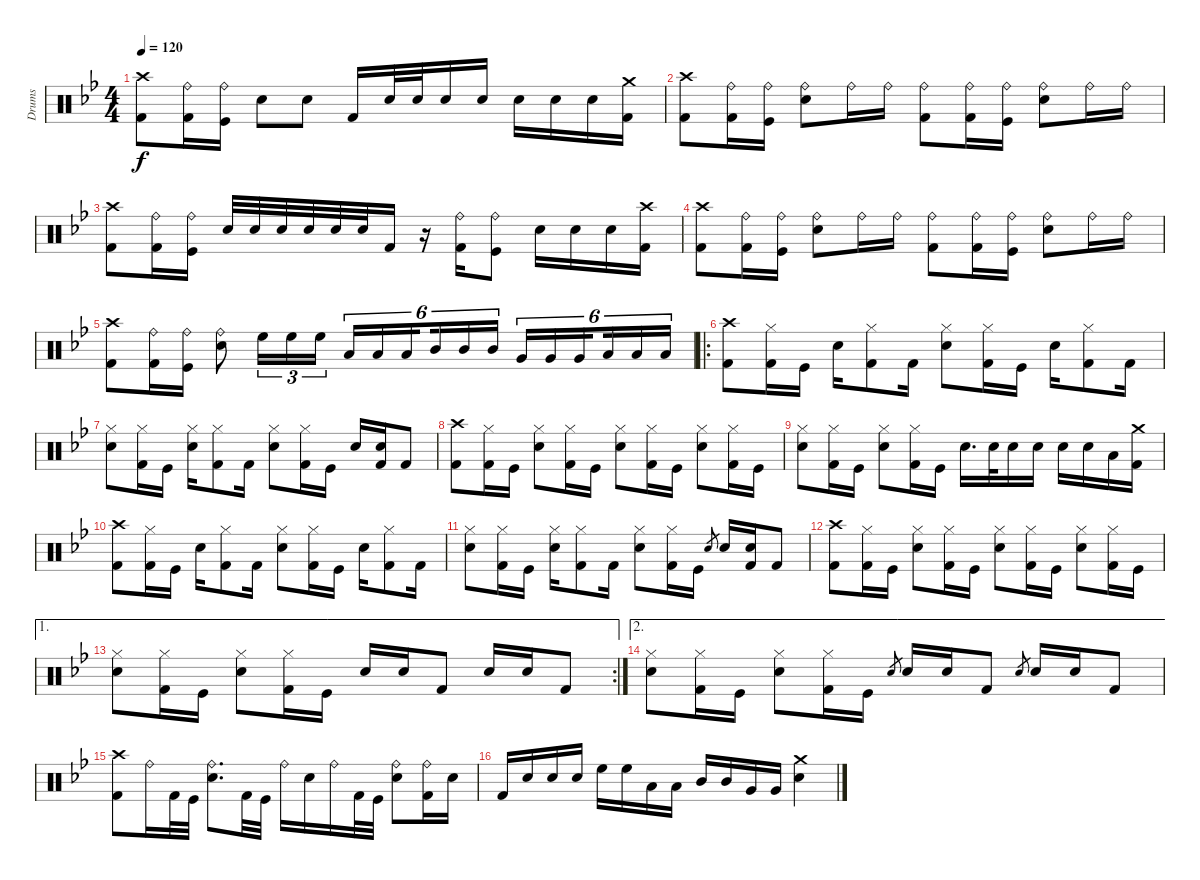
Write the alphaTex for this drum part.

\track ("Drums" "Drums") {instrument percussion}
\staff {score}
\articulation defaults
\ts (4 4)
\tempo 120
\clef neutral
\ks bb
("Crash high (hit)" "Kick (hit) 2").8{dy f} ("Ride (bell)" "Kick (hit) 2").16 ("Ride (bell)" "Kick (hit)").16 "Electric Snare (hit)".8 "Electric Snare (hit)".8 "Kick (hit) 2".16 "Electric Snare (hit)".32 "Electric Snare (hit)".32 "Electric Snare (hit)".16 "Electric Snare (hit)".16 "Electric Snare (hit)".16 "Electric Snare (hit)".16 "Electric Snare (hit)".16 ("Crash medium (hit)" "Kick (hit) 2").16 |
("Crash high (hit)" "Kick (hit) 2").8 ("Ride (bell)" "Kick (hit) 2").16 ("Ride (bell)" "Kick (hit)").16 ("Ride (bell)" "Electric Snare (hit)").8 "Ride (bell)".16 "Ride (bell)".16 ("Ride (bell)" "Kick (hit) 2").8 ("Ride (bell)" "Kick (hit) 2").16 ("Ride (bell)" "Kick (hit)").16 ("Ride (bell)" "Electric Snare (hit)").8 "Ride (bell)".16 "Ride (bell)".16 |
("Crash high (hit)" "Kick (hit) 2").8 ("Ride (bell)" "Kick (hit) 2").16 ("Ride (bell)" "Kick (hit)").16 "Electric Snare (hit)".32 "Electric Snare (hit)".32 "Electric Snare (hit)".32 "Electric Snare (hit)".32 "Electric Snare (hit)".32 "Electric Snare (hit)".32 "Kick (hit) 2".16 r.16 ("Ride (bell)" "Kick (hit) 2").16 ("Ride (bell)" "Kick (hit)").8 "Electric Snare (hit)".16 "Electric Snare (hit)".16 "Electric Snare (hit)".16 ("Crash high (hit)" "Kick (hit) 2").16 |
("Crash high (hit)" "Kick (hit) 2").8 ("Ride (bell)" "Kick (hit) 2").16 ("Ride (bell)" "Kick (hit)").16 ("Ride (bell)" "Electric Snare (hit)").8 "Ride (bell)".16 "Ride (bell)".16 ("Ride (bell)" "Kick (hit) 2").8 ("Ride (bell)" "Kick (hit) 2").16 ("Ride (bell)" "Kick (hit)").16 ("Ride (bell)" "Electric Snare (hit)").8 "Ride (bell)".16 "Ride (bell)".16 |
("Crash high (hit)" "Kick (hit) 2").8 ("Ride (bell)" "Kick (hit) 2").16 ("Ride (bell)" "Kick (hit)").16 ("Ride (bell)" "Electric Snare (hit)").8 "High Floor Tom (hit)".16{tu (3 2)} "High Floor Tom (hit)".16{tu (3 2)} "High Floor Tom (hit)".16{tu (3 2)} "Low Tom (hit)".16{tu (6 4)} "Low Tom (hit)".16{tu (6 4)} "Low Tom (hit)".16{tu (6 4) beam splitsecondary} "Mid Tom (hit)".16{tu (6 4)} "Mid Tom (hit)".16{tu (6 4)} "Mid Tom (hit)".16{tu (6 4)} "Very Low Tom (hit)".16{tu (6 4)} "Very Low Tom (hit)".16{tu (6 4)} "Very Low Tom (hit)".16{tu (6 4) beam splitsecondary} "Low Floor Tom (hit)".16{tu (6 4)} "Low Floor Tom (hit)".16{tu (6 4)} "Low Floor Tom (hit)".16{tu (6 4)} |
\ro
("Crash high (hit)" "Kick (hit) 2").8 ("Hi-Hat (closed)" "Kick (hit) 2").16 "Kick (hit)".16 "Electric Snare (hit)".16 ("Hi-Hat (closed)" "Kick (hit) 2").8 "Kick (hit) 2".16 ("Hi-Hat (closed)" "Electric Snare (hit)").8 ("Hi-Hat (closed)" "Kick (hit) 2").16 "Kick (hit)".16 "Electric Snare (hit)".16 ("Hi-Hat (closed)" "Kick (hit) 2").8 "Kick (hit) 2".16 |
("Hi-Hat (closed)" "Electric Snare (hit)").8 ("Hi-Hat (closed)" "Kick (hit) 2").16 "Kick (hit)".16 ("Hi-Hat (closed)" "Electric Snare (hit)").16 ("Hi-Hat (closed)" "Kick (hit) 2").8 "Kick (hit) 2".16 ("Hi-Hat (closed)" "Electric Snare (hit)").8 ("Hi-Hat (closed)" "Kick (hit) 2").16 "Kick (hit)".16 "Electric Snare (hit)".16 ("Electric Snare (hit)" "Kick (hit) 2").16 "Kick (hit) 2".8 |
("Crash high (hit)" "Kick (hit) 2").8 ("Hi-Hat (closed)" "Kick (hit) 2").16 "Kick (hit)".16 ("Hi-Hat (closed)" "Electric Snare (hit)").8 ("Hi-Hat (closed)" "Kick (hit) 2").16 "Kick (hit)".16 ("Hi-Hat (closed)" "Electric Snare (hit)").8 ("Hi-Hat (closed)" "Kick (hit) 2").16 "Kick (hit)".16 ("Hi-Hat (closed)" "Electric Snare (hit)").8 ("Hi-Hat (closed)" "Kick (hit) 2").16 "Kick (hit)".16 |
("Hi-Hat (closed)" "Electric Snare (hit)").8 ("Hi-Hat (closed)" "Kick (hit) 2").16 "Kick (hit)".16 ("Hi-Hat (closed)" "Electric Snare (hit)").8 ("Hi-Hat (closed)" "Kick (hit) 2").16 "Kick (hit)".16 "Electric Snare (hit)".16{d} "Electric Snare (hit)".32 "Electric Snare (hit)".16 "Electric Snare (hit)".16 "Electric Snare (hit)".16 "Electric Snare (hit)".16 "Low Tom (hit)".16 ("Crash medium (hit)" "Kick (hit) 2").16 |
("Crash high (hit)" "Kick (hit) 2").8 ("Hi-Hat (closed)" "Kick (hit) 2").16 "Kick (hit)".16 "Electric Snare (hit)".16 ("Hi-Hat (closed)" "Kick (hit) 2").8 "Kick (hit) 2".16 ("Hi-Hat (closed)" "Electric Snare (hit)").8 ("Hi-Hat (closed)" "Kick (hit) 2").16 "Kick (hit)".16 "Electric Snare (hit)".16 ("Hi-Hat (closed)" "Kick (hit) 2").8 "Kick (hit) 2".16 |
("Hi-Hat (closed)" "Electric Snare (hit)").8 ("Hi-Hat (closed)" "Kick (hit) 2").16 "Kick (hit)".16 ("Hi-Hat (closed)" "Electric Snare (hit)").16 ("Hi-Hat (closed)" "Kick (hit) 2").8 "Kick (hit) 2".16 ("Hi-Hat (closed)" "Electric Snare (hit)").8 ("Hi-Hat (closed)" "Kick (hit) 2").16 "Kick (hit)".16 "Electric Snare (hit)".8{gr} "Electric Snare (hit)".16 ("Electric Snare (hit)" "Kick (hit) 2").16 "Kick (hit) 2".8 |
("Crash high (hit)" "Kick (hit) 2").8 ("Hi-Hat (closed)" "Kick (hit) 2").16 "Kick (hit)".16 ("Hi-Hat (closed)" "Electric Snare (hit)").8 ("Hi-Hat (closed)" "Kick (hit) 2").16 "Kick (hit)".16 ("Hi-Hat (closed)" "Electric Snare (hit)").8 ("Hi-Hat (closed)" "Kick (hit) 2").16 "Kick (hit)".16 ("Hi-Hat (closed)" "Electric Snare (hit)").8 ("Hi-Hat (closed)" "Kick (hit) 2").16 "Kick (hit)".16 |
\ae 1
\rc 2
("Hi-Hat (closed)" "Electric Snare (hit)").8 ("Hi-Hat (closed)" "Kick (hit) 2").16 "Kick (hit)".16 ("Hi-Hat (closed)" "Electric Snare (hit)").8 ("Hi-Hat (closed)" "Kick (hit) 2").16 "Kick (hit)".16 "Electric Snare (hit)".16 "Electric Snare (hit)".16 "Kick (hit) 2".8 "Electric Snare (hit)".16 "Electric Snare (hit)".16 "Kick (hit) 2".8 |
\ae 2
("Hi-Hat (closed)" "Electric Snare (hit)").8 ("Hi-Hat (closed)" "Kick (hit) 2").16 "Kick (hit)".16 ("Hi-Hat (closed)" "Electric Snare (hit)").8 ("Hi-Hat (closed)" "Kick (hit) 2").16 "Kick (hit)".16 "Electric Snare (hit)".8{gr} "Electric Snare (hit)".16 "Electric Snare (hit)".16 "Kick (hit) 2".8 "Electric Snare (hit)".8{gr} "Electric Snare (hit)".16 "Electric Snare (hit)".16 "Kick (hit) 2".8 |
("Crash high (hit)" "Kick (hit) 2").8 "Ride (bell)".16 "Kick (hit) 2".32 "Kick (hit)".32 ("Ride (bell)" "Electric Snare (hit)").8{d} "Kick (hit) 2".32 "Kick (hit)".32 "Ride (bell)".16 "Electric Snare (hit)".16 "Ride (bell)".16 "Kick (hit) 2".32 "Kick (hit)".32 ("Ride (bell)" "Electric Snare (hit)").8 ("Ride (bell)" "Kick (hit) 2").16 "Electric Snare (hit)".16 |
"Kick (hit) 2".16 "Electric Snare (hit)".16 "Electric Snare (hit)".16 "Electric Snare (hit)".16 "High Floor Tom (hit)".16 "High Floor Tom (hit)".16 "Low Tom (hit)".16 "Low Tom (hit)".16 "Mid Tom (hit)".16 "Mid Tom (hit)".16 "Very Low Tom (hit)".16 "Very Low Tom (hit)".16 ("Crash medium (hit)" "Electric Snare (hit)").4
